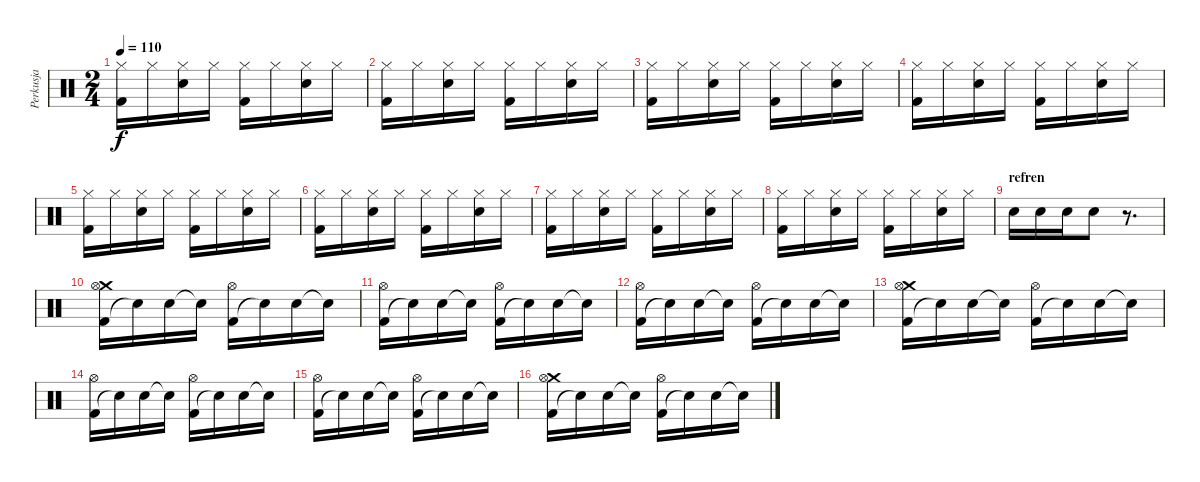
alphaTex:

\track ("Perkusja" "Perkusja") {instrument percussion}
\staff {score}
\articulation defaults
\ts (2 4)
\tempo 110
\clef neutral
\ks c
("Kick (hit) 2" "Hi-Hat (closed)").16{dy f} "Hi-Hat (closed)".16 ("Electric Snare (hit)" "Hi-Hat (closed)").16 "Hi-Hat (closed)".16 ("Kick (hit) 2" "Hi-Hat (closed)").16 "Hi-Hat (closed)".16 ("Electric Snare (hit)" "Hi-Hat (closed)").16 "Hi-Hat (closed)".16 |
("Kick (hit) 2" "Hi-Hat (closed)").16 "Hi-Hat (closed)".16 ("Electric Snare (hit)" "Hi-Hat (closed)").16 "Hi-Hat (closed)".16 ("Kick (hit) 2" "Hi-Hat (closed)").16 "Hi-Hat (closed)".16 ("Electric Snare (hit)" "Hi-Hat (closed)").16 "Hi-Hat (closed)".16 |
("Kick (hit) 2" "Hi-Hat (closed)").16 "Hi-Hat (closed)".16 ("Electric Snare (hit)" "Hi-Hat (closed)").16 "Hi-Hat (closed)".16 ("Kick (hit) 2" "Hi-Hat (closed)").16 "Hi-Hat (closed)".16 ("Electric Snare (hit)" "Hi-Hat (closed)").16 "Hi-Hat (closed)".16 |
("Kick (hit) 2" "Hi-Hat (closed)").16 "Hi-Hat (closed)".16 ("Electric Snare (hit)" "Hi-Hat (closed)").16 "Hi-Hat (closed)".16 ("Kick (hit) 2" "Hi-Hat (closed)").16 "Hi-Hat (closed)".16 ("Electric Snare (hit)" "Hi-Hat (closed)").16 "Hi-Hat (closed)".16 |
("Kick (hit) 2" "Hi-Hat (closed)").16 "Hi-Hat (closed)".16 ("Electric Snare (hit)" "Hi-Hat (closed)").16 "Hi-Hat (closed)".16 ("Kick (hit) 2" "Hi-Hat (closed)").16 "Hi-Hat (closed)".16 ("Electric Snare (hit)" "Hi-Hat (closed)").16 "Hi-Hat (closed)".16 |
("Kick (hit) 2" "Hi-Hat (closed)").16 "Hi-Hat (closed)".16 ("Electric Snare (hit)" "Hi-Hat (closed)").16 "Hi-Hat (closed)".16 ("Kick (hit) 2" "Hi-Hat (closed)").16 "Hi-Hat (closed)".16 ("Electric Snare (hit)" "Hi-Hat (closed)").16 "Hi-Hat (closed)".16 |
("Kick (hit) 2" "Hi-Hat (closed)").16 "Hi-Hat (closed)".16 ("Electric Snare (hit)" "Hi-Hat (closed)").16 "Hi-Hat (closed)".16 ("Kick (hit) 2" "Hi-Hat (closed)").16 "Hi-Hat (closed)".16 ("Electric Snare (hit)" "Hi-Hat (closed)").16 "Hi-Hat (closed)".16 |
("Kick (hit) 2" "Hi-Hat (closed)").16 "Hi-Hat (closed)".16 ("Electric Snare (hit)" "Hi-Hat (closed)").16 "Hi-Hat (closed)".16 ("Kick (hit) 2" "Hi-Hat (closed)").16 "Hi-Hat (closed)".16 ("Electric Snare (hit)" "Hi-Hat (closed)").16 "Hi-Hat (closed)".16 |
\section ("" "refren")
"Electric Snare (hit)".16 "Electric Snare (hit)".16 "Electric Snare (hit)".16 "Electric Snare (hit)".8 r.8{d} |
("Kick (hit) 2" "Crash medium (hit)" "Hi-Hat (open)").16 "Snare (hit)"{t}.16 "Electric Snare (hit)".16 "Snare (hit)"{t}.16 ("Kick (hit) 2" "Hi-Hat (open)").16 "Snare (hit)"{t}.16 "Electric Snare (hit)".16 "Snare (hit)"{t}.16 |
("Kick (hit) 2" "Hi-Hat (open)").16 "Snare (hit)"{t}.16 "Electric Snare (hit)".16 "Snare (hit)"{t}.16 ("Kick (hit) 2" "Hi-Hat (open)").16 "Snare (hit)"{t}.16 "Electric Snare (hit)".16 "Snare (hit)"{t}.16 |
("Kick (hit) 2" "Hi-Hat (open)").16 "Snare (hit)"{t}.16 "Electric Snare (hit)".16 "Snare (hit)"{t}.16 ("Kick (hit) 2" "Hi-Hat (open)").16 "Snare (hit)"{t}.16 "Electric Snare (hit)".16 "Snare (hit)"{t}.16 |
("Kick (hit) 2" "Crash medium (hit)" "Hi-Hat (open)").16 "Snare (hit)"{t}.16 "Electric Snare (hit)".16 "Snare (hit)"{t}.16 ("Kick (hit) 2" "Hi-Hat (open)").16 "Snare (hit)"{t}.16 "Electric Snare (hit)".16 "Snare (hit)"{t}.16 |
("Kick (hit) 2" "Hi-Hat (open)").16 "Snare (hit)"{t}.16 "Electric Snare (hit)".16 "Snare (hit)"{t}.16 ("Kick (hit) 2" "Hi-Hat (open)").16 "Snare (hit)"{t}.16 "Electric Snare (hit)".16 "Snare (hit)"{t}.16 |
("Kick (hit) 2" "Hi-Hat (open)").16 "Snare (hit)"{t}.16 "Electric Snare (hit)".16 "Snare (hit)"{t}.16 ("Kick (hit) 2" "Hi-Hat (open)").16 "Snare (hit)"{t}.16 "Electric Snare (hit)".16 "Snare (hit)"{t}.16 |
("Kick (hit) 2" "Crash medium (hit)" "Hi-Hat (open)").16 "Snare (hit)"{t}.16 "Electric Snare (hit)".16 "Snare (hit)"{t}.16 ("Kick (hit) 2" "Hi-Hat (open)").16 "Snare (hit)"{t}.16 "Electric Snare (hit)".16 "Snare (hit)"{t}.16
